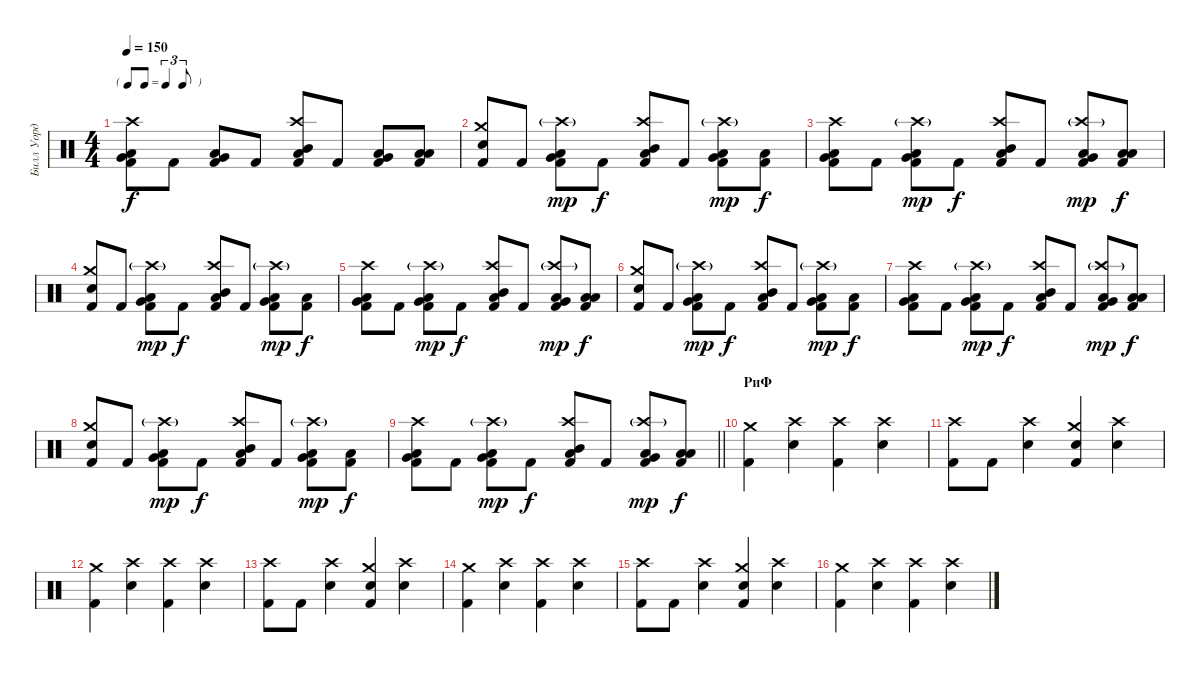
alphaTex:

\track ("Билл Уорд" "Билл Уорд") {instrument percussion}
\staff {score}
\articulation defaults
\ts (4 4)
\tf triplet8th
\tempo 150
\clef neutral
\ks c
("Kick (hit) 2" "Low Floor Tom (hit)" "Very Low Tom (hit)" "Crash high (hit)").8{dy f} "Kick (hit) 2".8 ("Kick (hit) 2" "Low Floor Tom (hit)" "Very Low Tom (hit)").8 "Kick (hit) 2".8 ("Kick (hit) 2" "Low Tom (hit)" "Mid Tom (hit)" "Crash high (hit)").8 "Kick (hit) 2".8 ("Kick (hit) 2" "Very Low Tom (hit)" "Low Tom (hit)").8 ("Kick (hit) 2" "Low Floor Tom (hit)" "Low Tom (hit)").8 |
("Crash medium (hit)" "Kick (hit) 2" "Snare (hit) 2").8 "Kick (hit) 2".8 ("Low Floor Tom (hit)" "Kick (hit) 2" "Very Low Tom (hit)" "Crash high (hit)"{g}).8{dy mp} "Kick (hit) 2".8{dy f} ("Low Tom (hit)" "Kick (hit) 2" "Mid Tom (hit)" "Crash high (hit)").8 "Kick (hit) 2".8 ("Low Floor Tom (hit)" "Kick (hit) 2" "Very Low Tom (hit)" "Crash high (hit)"{g}).8{dy mp} ("Low Floor Tom (hit)" "Kick (hit) 2").8{dy f} |
("Kick (hit) 2" "Low Floor Tom (hit)" "Very Low Tom (hit)" "Crash high (hit)").8 "Kick (hit) 2".8 ("Kick (hit) 2" "Low Floor Tom (hit)" "Very Low Tom (hit)" "Crash high (hit)"{g}).8{dy mp} "Kick (hit) 2".8{dy f} ("Kick (hit) 2" "Low Tom (hit)" "Mid Tom (hit)" "Crash high (hit)").8 "Kick (hit) 2".8 ("Kick (hit) 2" "Very Low Tom (hit)" "Low Tom (hit)" "Crash high (hit)"{g}).8{dy mp} ("Kick (hit) 2" "Low Floor Tom (hit)" "Low Tom (hit)").8{dy f} |
("Crash medium (hit)" "Kick (hit) 2" "Snare (hit) 2").8 "Kick (hit) 2".8 ("Low Floor Tom (hit)" "Kick (hit) 2" "Very Low Tom (hit)" "Crash high (hit)"{g}).8{dy mp} "Kick (hit) 2".8{dy f} ("Low Tom (hit)" "Kick (hit) 2" "Mid Tom (hit)" "Crash high (hit)").8 "Kick (hit) 2".8 ("Low Floor Tom (hit)" "Kick (hit) 2" "Very Low Tom (hit)" "Crash high (hit)"{g}).8{dy mp} ("Low Floor Tom (hit)" "Kick (hit) 2").8{dy f} |
("Kick (hit) 2" "Low Floor Tom (hit)" "Very Low Tom (hit)" "Crash high (hit)").8 "Kick (hit) 2".8 ("Kick (hit) 2" "Low Floor Tom (hit)" "Very Low Tom (hit)" "Crash high (hit)"{g}).8{dy mp} "Kick (hit) 2".8{dy f} ("Kick (hit) 2" "Low Tom (hit)" "Mid Tom (hit)" "Crash high (hit)").8 "Kick (hit) 2".8 ("Kick (hit) 2" "Very Low Tom (hit)" "Low Tom (hit)" "Crash high (hit)"{g}).8{dy mp} ("Kick (hit) 2" "Low Floor Tom (hit)" "Low Tom (hit)").8{dy f} |
("Crash medium (hit)" "Kick (hit) 2" "Snare (hit) 2").8 "Kick (hit) 2".8 ("Low Floor Tom (hit)" "Kick (hit) 2" "Very Low Tom (hit)" "Crash high (hit)"{g}).8{dy mp} "Kick (hit) 2".8{dy f} ("Low Tom (hit)" "Kick (hit) 2" "Mid Tom (hit)" "Crash high (hit)").8 "Kick (hit) 2".8 ("Low Floor Tom (hit)" "Kick (hit) 2" "Very Low Tom (hit)" "Crash high (hit)"{g}).8{dy mp} ("Low Floor Tom (hit)" "Kick (hit) 2").8{dy f} |
("Kick (hit) 2" "Low Floor Tom (hit)" "Very Low Tom (hit)" "Crash high (hit)").8 "Kick (hit) 2".8 ("Kick (hit) 2" "Low Floor Tom (hit)" "Very Low Tom (hit)" "Crash high (hit)"{g}).8{dy mp} "Kick (hit) 2".8{dy f} ("Kick (hit) 2" "Low Tom (hit)" "Mid Tom (hit)" "Crash high (hit)").8 "Kick (hit) 2".8 ("Kick (hit) 2" "Very Low Tom (hit)" "Low Tom (hit)" "Crash high (hit)"{g}).8{dy mp} ("Kick (hit) 2" "Low Floor Tom (hit)" "Low Tom (hit)").8{dy f} |
("Crash medium (hit)" "Kick (hit) 2" "Snare (hit) 2").8 "Kick (hit) 2".8 ("Low Floor Tom (hit)" "Kick (hit) 2" "Very Low Tom (hit)" "Crash high (hit)"{g}).8{dy mp} "Kick (hit) 2".8{dy f} ("Low Tom (hit)" "Kick (hit) 2" "Mid Tom (hit)" "Crash high (hit)").8 "Kick (hit) 2".8 ("Low Floor Tom (hit)" "Kick (hit) 2" "Very Low Tom (hit)" "Crash high (hit)"{g}).8{dy mp} ("Low Floor Tom (hit)" "Kick (hit) 2").8{dy f} |
\barLineRight lightlight
("Kick (hit) 2" "Low Floor Tom (hit)" "Very Low Tom (hit)" "Crash high (hit)").8 "Kick (hit) 2".8 ("Kick (hit) 2" "Low Floor Tom (hit)" "Very Low Tom (hit)" "Crash high (hit)"{g}).8{dy mp} "Kick (hit) 2".8{dy f} ("Kick (hit) 2" "Low Tom (hit)" "Mid Tom (hit)" "Crash high (hit)").8 "Kick (hit) 2".8 ("Kick (hit) 2" "Very Low Tom (hit)" "Low Tom (hit)" "Crash high (hit)"{g}).8{dy mp} ("Kick (hit) 2" "Low Floor Tom (hit)" "Low Tom (hit)").8{dy f} |
\section ("" "РиФ")
("Kick (hit) 2" "Crash medium (hit)").4 ("Snare (hit) 2" "Crash high (hit)").4 ("Kick (hit) 2" "Crash high (hit)").4 ("Snare (hit) 2" "Crash high (hit)").4 |
("Kick (hit) 2" "Crash high (hit)").8 "Kick (hit) 2".8 ("Snare (hit) 2" "Crash high (hit)").4 ("Snare (hit) 2" "Kick (hit) 2" "Crash medium (hit)").4 ("Snare (hit) 2" "Crash high (hit)").4 |
("Kick (hit) 2" "Crash medium (hit)").4 ("Snare (hit) 2" "Crash high (hit)").4 ("Kick (hit) 2" "Crash high (hit)").4 ("Snare (hit) 2" "Crash high (hit)").4 |
("Kick (hit) 2" "Crash high (hit)").8 "Kick (hit) 2".8 ("Snare (hit) 2" "Crash high (hit)").4 ("Snare (hit) 2" "Kick (hit) 2" "Crash medium (hit)").4 ("Snare (hit) 2" "Crash high (hit)").4 |
("Kick (hit) 2" "Crash medium (hit)").4 ("Snare (hit) 2" "Crash high (hit)").4 ("Kick (hit) 2" "Crash high (hit)").4 ("Snare (hit) 2" "Crash high (hit)").4 |
("Kick (hit) 2" "Crash high (hit)").8 "Kick (hit) 2".8 ("Snare (hit) 2" "Crash high (hit)").4 ("Snare (hit) 2" "Kick (hit) 2" "Crash medium (hit)").4 ("Snare (hit) 2" "Crash high (hit)").4 |
("Kick (hit) 2" "Crash medium (hit)").4 ("Snare (hit) 2" "Crash high (hit)").4 ("Kick (hit) 2" "Crash high (hit)").4 ("Snare (hit) 2" "Crash high (hit)").4
